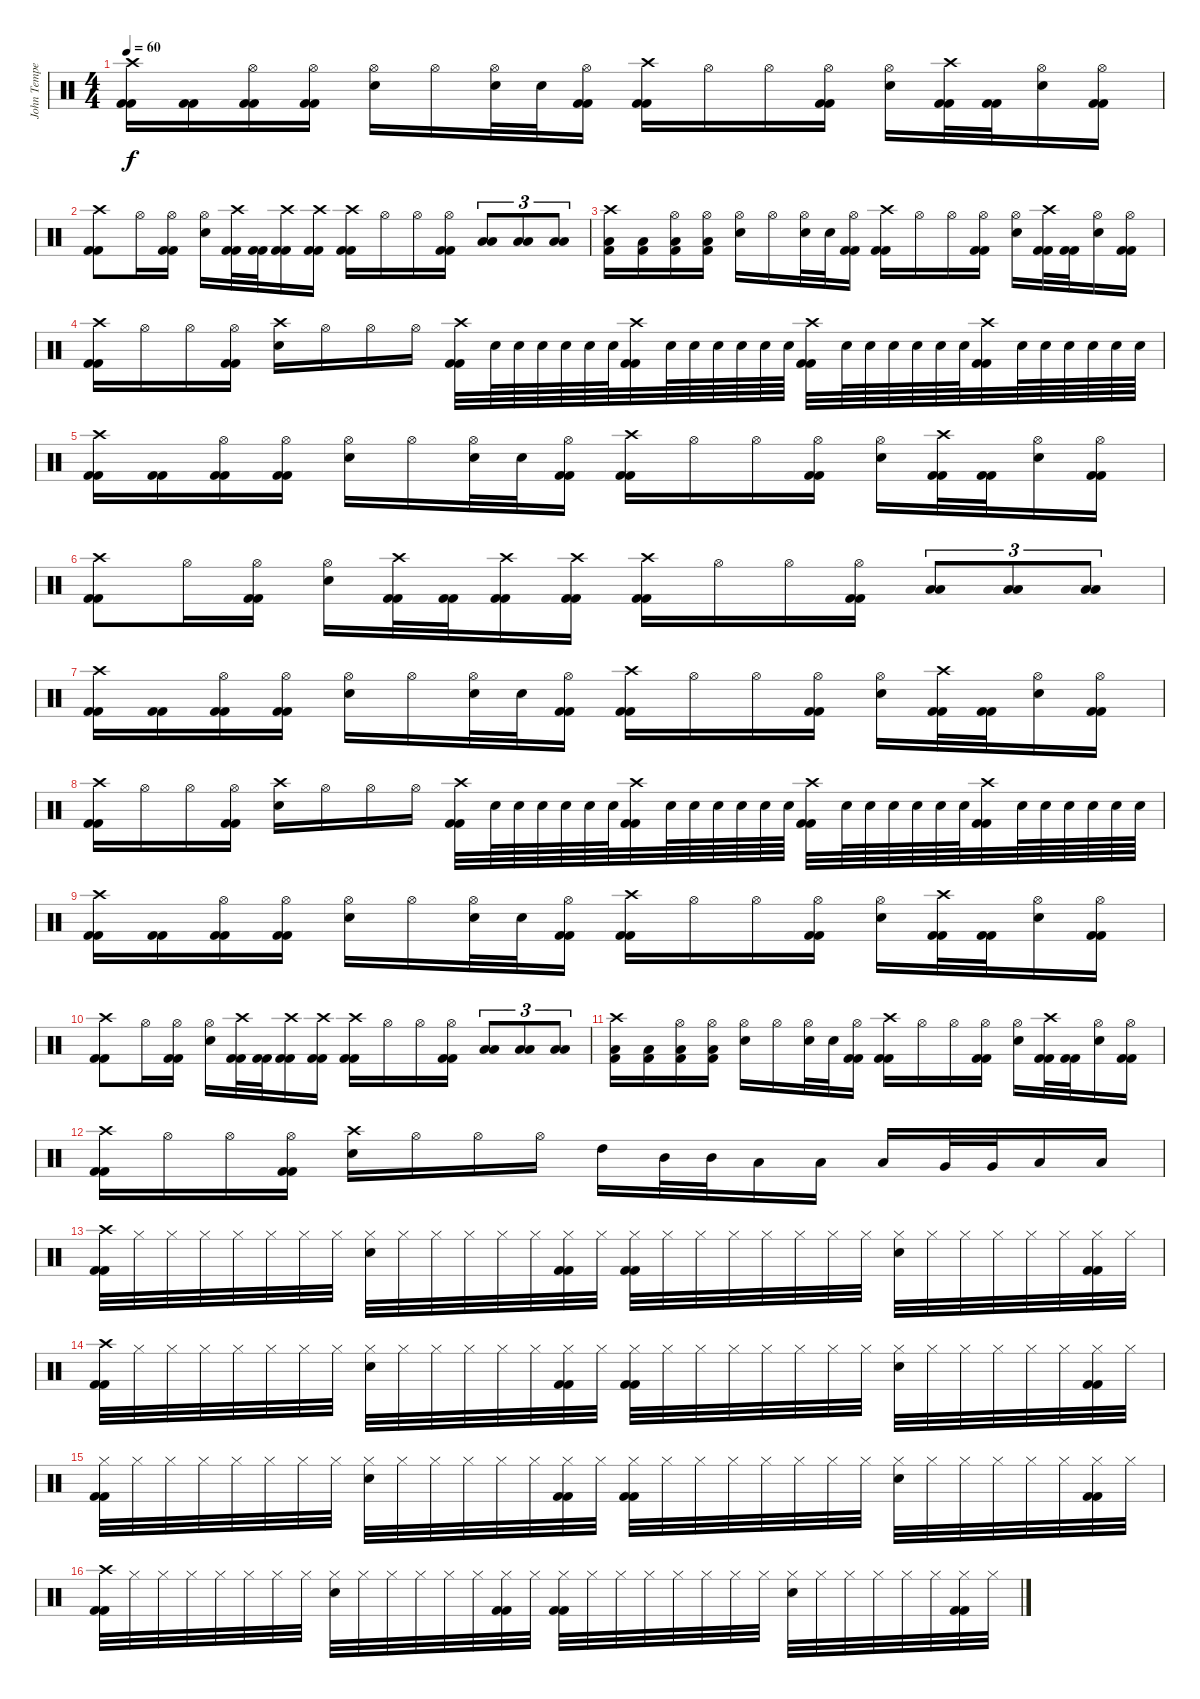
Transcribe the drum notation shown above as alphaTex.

\track ("John Tempesta" "John Tempe") {instrument percussion}
\staff {score}
\articulation defaults
\ts (4 4)
\tempo 60
\clef neutral
\ks c
("Crash high (hit)" "Kick (hit) 2" "Kick (hit) 2").16{dy f} ("Kick (hit) 2" "Kick (hit) 2").16 ("Hi-Hat (open)" "Kick (hit) 2" "Kick (hit) 2").16 ("Hi-Hat (open)" "Kick (hit) 2" "Kick (hit) 2").16 ("Hi-Hat (open)" "Electric Snare (hit)").16 "Hi-Hat (open)".16 ("Hi-Hat (open)" "Electric Snare (hit)").32 "Electric Snare (hit)".32 ("Hi-Hat (open)" "Kick (hit) 2" "Kick (hit) 2").16 ("Crash high (hit)" "Kick (hit) 2" "Kick (hit) 2").16 "Hi-Hat (open)".16 "Hi-Hat (open)".16 ("Hi-Hat (open)" "Kick (hit) 2" "Kick (hit) 2").16 ("Hi-Hat (open)" "Electric Snare (hit)").16 ("Crash high (hit)" "Kick (hit) 2" "Kick (hit) 2").32 ("Kick (hit) 2" "Kick (hit) 2").32 ("Hi-Hat (open)" "Electric Snare (hit)").16 ("Hi-Hat (open)" "Kick (hit) 2" "Kick (hit) 2").16 |
("Crash high (hit)" "Kick (hit) 2" "Kick (hit) 2").8 "Hi-Hat (open)".16 ("Hi-Hat (open)" "Kick (hit) 2" "Kick (hit) 2").16 ("Hi-Hat (open)" "Electric Snare (hit)").16 ("Crash high (hit)" "Kick (hit) 2" "Kick (hit) 2").32 ("Kick (hit) 2" "Kick (hit) 2").32 ("Crash high (hit)" "Kick (hit) 2" "Kick (hit) 2").16 ("Crash high (hit)" "Kick (hit) 2" "Kick (hit) 2").16 ("Crash high (hit)" "Kick (hit) 2" "Kick (hit) 2").16 "Hi-Hat (open)".16 "Hi-Hat (open)".16 ("Hi-Hat (open)" "Kick (hit) 2" "Kick (hit) 2").16 ("Low Floor Tom (hit)" "Low Floor Tom (hit)").8{tu (3 2)} ("Low Floor Tom (hit)" "Low Floor Tom (hit)").8{tu (3 2)} ("Low Floor Tom (hit)" "Low Floor Tom (hit)").8{tu (3 2)} |
("Crash high (hit)" "Low Floor Tom (hit)" "Kick (hit) 2").16 ("Low Floor Tom (hit)" "Kick (hit) 2").16 ("Hi-Hat (open)" "Low Floor Tom (hit)" "Kick (hit) 2").16 ("Hi-Hat (open)" "Low Floor Tom (hit)" "Kick (hit) 2").16 ("Hi-Hat (open)" "Electric Snare (hit)").16 "Hi-Hat (open)".16 ("Hi-Hat (open)" "Electric Snare (hit)").32 "Electric Snare (hit)".32 ("Hi-Hat (open)" "Kick (hit) 2" "Kick (hit) 2").16 ("Crash high (hit)" "Kick (hit) 2" "Kick (hit) 2").16 "Hi-Hat (open)".16 "Hi-Hat (open)".16 ("Hi-Hat (open)" "Kick (hit) 2" "Kick (hit) 2").16 ("Hi-Hat (open)" "Electric Snare (hit)").16 ("Crash high (hit)" "Kick (hit) 2" "Kick (hit) 2").32 ("Kick (hit) 2" "Kick (hit) 2").32 ("Hi-Hat (open)" "Electric Snare (hit)").16 ("Hi-Hat (open)" "Kick (hit) 2" "Kick (hit) 2").16 |
("Crash high (hit)" "Kick (hit) 2" "Kick (hit) 2").16 "Hi-Hat (open)".16 "Hi-Hat (open)".16 ("Hi-Hat (open)" "Kick (hit) 2" "Kick (hit) 2").16 ("Crash high (hit)" "Electric Snare (hit)").16 "Hi-Hat (open)".16 "Hi-Hat (open)".16 "Hi-Hat (open)".16 ("Crash high (hit)" "Kick (hit) 2" "Kick (hit) 2").32 "Electric Snare (hit)".64 "Electric Snare (hit)".64 "Electric Snare (hit)".64 "Electric Snare (hit)".64 "Electric Snare (hit)".64 "Electric Snare (hit)".64 ("Crash high (hit)" "Kick (hit) 2" "Kick (hit) 2").32 "Electric Snare (hit)".64 "Electric Snare (hit)".64 "Electric Snare (hit)".64 "Electric Snare (hit)".64 "Electric Snare (hit)".64 "Electric Snare (hit)".64 ("Crash high (hit)" "Kick (hit) 2" "Kick (hit) 2").32 "Electric Snare (hit)".64 "Electric Snare (hit)".64 "Electric Snare (hit)".64 "Electric Snare (hit)".64 "Electric Snare (hit)".64 "Electric Snare (hit)".64 ("Crash high (hit)" "Kick (hit) 2" "Kick (hit) 2").32 "Electric Snare (hit)".64 "Electric Snare (hit)".64 "Electric Snare (hit)".64 "Electric Snare (hit)".64 "Electric Snare (hit)".64 "Electric Snare (hit)".64 |
("Crash high (hit)" "Kick (hit) 2" "Kick (hit) 2").16 ("Kick (hit) 2" "Kick (hit) 2").16 ("Hi-Hat (open)" "Kick (hit) 2" "Kick (hit) 2").16 ("Hi-Hat (open)" "Kick (hit) 2" "Kick (hit) 2").16 ("Hi-Hat (open)" "Electric Snare (hit)").16 "Hi-Hat (open)".16 ("Hi-Hat (open)" "Electric Snare (hit)").32 "Electric Snare (hit)".32 ("Hi-Hat (open)" "Kick (hit) 2" "Kick (hit) 2").16 ("Crash high (hit)" "Kick (hit) 2" "Kick (hit) 2").16 "Hi-Hat (open)".16 "Hi-Hat (open)".16 ("Hi-Hat (open)" "Kick (hit) 2" "Kick (hit) 2").16 ("Hi-Hat (open)" "Electric Snare (hit)").16 ("Crash high (hit)" "Kick (hit) 2" "Kick (hit) 2").32 ("Kick (hit) 2" "Kick (hit) 2").32 ("Hi-Hat (open)" "Electric Snare (hit)").16 ("Hi-Hat (open)" "Kick (hit) 2" "Kick (hit) 2").16 |
("Crash high (hit)" "Kick (hit) 2" "Kick (hit) 2").8 "Hi-Hat (open)".16 ("Hi-Hat (open)" "Kick (hit) 2" "Kick (hit) 2").16 ("Hi-Hat (open)" "Electric Snare (hit)").16 ("Crash high (hit)" "Kick (hit) 2" "Kick (hit) 2").32 ("Kick (hit) 2" "Kick (hit) 2").32 ("Crash high (hit)" "Kick (hit) 2" "Kick (hit) 2").16 ("Crash high (hit)" "Kick (hit) 2" "Kick (hit) 2").16 ("Crash high (hit)" "Kick (hit) 2" "Kick (hit) 2").16 "Hi-Hat (open)".16 "Hi-Hat (open)".16 ("Hi-Hat (open)" "Kick (hit) 2" "Kick (hit) 2").16 ("Low Floor Tom (hit)" "Low Floor Tom (hit)").8{tu (3 2)} ("Low Floor Tom (hit)" "Low Floor Tom (hit)").8{tu (3 2)} ("Low Floor Tom (hit)" "Low Floor Tom (hit)").8{tu (3 2)} |
("Crash high (hit)" "Kick (hit) 2" "Kick (hit) 2").16 ("Kick (hit) 2" "Kick (hit) 2").16 ("Hi-Hat (open)" "Kick (hit) 2" "Kick (hit) 2").16 ("Hi-Hat (open)" "Kick (hit) 2" "Kick (hit) 2").16 ("Hi-Hat (open)" "Electric Snare (hit)").16 "Hi-Hat (open)".16 ("Hi-Hat (open)" "Electric Snare (hit)").32 "Electric Snare (hit)".32 ("Hi-Hat (open)" "Kick (hit) 2" "Kick (hit) 2").16 ("Crash high (hit)" "Kick (hit) 2" "Kick (hit) 2").16 "Hi-Hat (open)".16 "Hi-Hat (open)".16 ("Hi-Hat (open)" "Kick (hit) 2" "Kick (hit) 2").16 ("Hi-Hat (open)" "Electric Snare (hit)").16 ("Crash high (hit)" "Kick (hit) 2" "Kick (hit) 2").32 ("Kick (hit) 2" "Kick (hit) 2").32 ("Hi-Hat (open)" "Electric Snare (hit)").16 ("Hi-Hat (open)" "Kick (hit) 2" "Kick (hit) 2").16 |
("Crash high (hit)" "Kick (hit) 2" "Kick (hit) 2").16 "Hi-Hat (open)".16 "Hi-Hat (open)".16 ("Hi-Hat (open)" "Kick (hit) 2" "Kick (hit) 2").16 ("Crash high (hit)" "Electric Snare (hit)").16 "Hi-Hat (open)".16 "Hi-Hat (open)".16 "Hi-Hat (open)".16 ("Crash high (hit)" "Kick (hit) 2" "Kick (hit) 2").32 "Electric Snare (hit)".64 "Electric Snare (hit)".64 "Electric Snare (hit)".64 "Electric Snare (hit)".64 "Electric Snare (hit)".64 "Electric Snare (hit)".64 ("Crash high (hit)" "Kick (hit) 2" "Kick (hit) 2").32 "Electric Snare (hit)".64 "Electric Snare (hit)".64 "Electric Snare (hit)".64 "Electric Snare (hit)".64 "Electric Snare (hit)".64 "Electric Snare (hit)".64 ("Crash high (hit)" "Kick (hit) 2" "Kick (hit) 2").32 "Electric Snare (hit)".64 "Electric Snare (hit)".64 "Electric Snare (hit)".64 "Electric Snare (hit)".64 "Electric Snare (hit)".64 "Electric Snare (hit)".64 ("Crash high (hit)" "Kick (hit) 2" "Kick (hit) 2").32 "Electric Snare (hit)".64 "Electric Snare (hit)".64 "Electric Snare (hit)".64 "Electric Snare (hit)".64 "Electric Snare (hit)".64 "Electric Snare (hit)".64 |
("Crash high (hit)" "Kick (hit) 2" "Kick (hit) 2").16 ("Kick (hit) 2" "Kick (hit) 2").16 ("Hi-Hat (open)" "Kick (hit) 2" "Kick (hit) 2").16 ("Hi-Hat (open)" "Kick (hit) 2" "Kick (hit) 2").16 ("Hi-Hat (open)" "Electric Snare (hit)").16 "Hi-Hat (open)".16 ("Hi-Hat (open)" "Electric Snare (hit)").32 "Electric Snare (hit)".32 ("Hi-Hat (open)" "Kick (hit) 2" "Kick (hit) 2").16 ("Crash high (hit)" "Kick (hit) 2" "Kick (hit) 2").16 "Hi-Hat (open)".16 "Hi-Hat (open)".16 ("Hi-Hat (open)" "Kick (hit) 2" "Kick (hit) 2").16 ("Hi-Hat (open)" "Electric Snare (hit)").16 ("Crash high (hit)" "Kick (hit) 2" "Kick (hit) 2").32 ("Kick (hit) 2" "Kick (hit) 2").32 ("Hi-Hat (open)" "Electric Snare (hit)").16 ("Hi-Hat (open)" "Kick (hit) 2" "Kick (hit) 2").16 |
("Crash high (hit)" "Kick (hit) 2" "Kick (hit) 2").8 "Hi-Hat (open)".16 ("Hi-Hat (open)" "Kick (hit) 2" "Kick (hit) 2").16 ("Hi-Hat (open)" "Electric Snare (hit)").16 ("Crash high (hit)" "Kick (hit) 2" "Kick (hit) 2").32 ("Kick (hit) 2" "Kick (hit) 2").32 ("Crash high (hit)" "Kick (hit) 2" "Kick (hit) 2").16 ("Crash high (hit)" "Kick (hit) 2" "Kick (hit) 2").16 ("Crash high (hit)" "Kick (hit) 2" "Kick (hit) 2").16 "Hi-Hat (open)".16 "Hi-Hat (open)".16 ("Hi-Hat (open)" "Kick (hit) 2" "Kick (hit) 2").16 ("Low Floor Tom (hit)" "Low Floor Tom (hit)").8{tu (3 2)} ("Low Floor Tom (hit)" "Low Floor Tom (hit)").8{tu (3 2)} ("Low Floor Tom (hit)" "Low Floor Tom (hit)").8{tu (3 2)} |
("Crash high (hit)" "Low Floor Tom (hit)" "Kick (hit) 2").16 ("Low Floor Tom (hit)" "Kick (hit) 2").16 ("Hi-Hat (open)" "Low Floor Tom (hit)" "Kick (hit) 2").16 ("Hi-Hat (open)" "Low Floor Tom (hit)" "Kick (hit) 2").16 ("Hi-Hat (open)" "Electric Snare (hit)").16 "Hi-Hat (open)".16 ("Hi-Hat (open)" "Electric Snare (hit)").32 "Electric Snare (hit)".32 ("Hi-Hat (open)" "Kick (hit) 2" "Kick (hit) 2").16 ("Crash high (hit)" "Kick (hit) 2" "Kick (hit) 2").16 "Hi-Hat (open)".16 "Hi-Hat (open)".16 ("Hi-Hat (open)" "Kick (hit) 2" "Kick (hit) 2").16 ("Hi-Hat (open)" "Electric Snare (hit)").16 ("Crash high (hit)" "Kick (hit) 2" "Kick (hit) 2").32 ("Kick (hit) 2" "Kick (hit) 2").32 ("Hi-Hat (open)" "Electric Snare (hit)").16 ("Hi-Hat (open)" "Kick (hit) 2" "Kick (hit) 2").16 |
("Crash high (hit)" "Kick (hit) 2" "Kick (hit) 2").16 "Hi-Hat (open)".16 "Hi-Hat (open)".16 ("Hi-Hat (open)" "Kick (hit) 2" "Kick (hit) 2").16 ("Crash high (hit)" "Electric Snare (hit)").16 "Hi-Hat (open)".16 "Hi-Hat (open)".16 "Hi-Hat (open)".16 "High Tom (hit)".16 "Mid Tom (hit)".32 "Mid Tom (hit)".32 "Low Tom (hit)".16 "Low Tom (hit)".16 "Low Tom (hit)".16 "Very Low Tom (hit)".32 "Very Low Tom (hit)".32 "Low Floor Tom (hit)".16 "Low Floor Tom (hit)".16 |
("Crash high (hit)" "Kick (hit) 2" "Kick (hit) 2").32 "Hi-Hat (closed)".32 "Hi-Hat (closed)".32 "Hi-Hat (closed)".32 "Hi-Hat (closed)".32 "Hi-Hat (closed)".32 "Hi-Hat (closed)".32 "Hi-Hat (closed)".32 ("Hi-Hat (closed)" "Electric Snare (hit)").32 "Hi-Hat (closed)".32 "Hi-Hat (closed)".32 "Hi-Hat (closed)".32 "Hi-Hat (closed)".32 "Hi-Hat (closed)".32 ("Hi-Hat (closed)" "Kick (hit) 2" "Kick (hit) 2").32 "Hi-Hat (closed)".32 ("Hi-Hat (closed)" "Kick (hit) 2" "Kick (hit) 2").32 "Hi-Hat (closed)".32 "Hi-Hat (closed)".32 "Hi-Hat (closed)".32 "Hi-Hat (closed)".32 "Hi-Hat (closed)".32 "Hi-Hat (closed)".32 "Hi-Hat (closed)".32 ("Hi-Hat (closed)" "Electric Snare (hit)").32 "Hi-Hat (closed)".32 "Hi-Hat (closed)".32 "Hi-Hat (closed)".32 "Hi-Hat (closed)".32 "Hi-Hat (closed)".32 ("Hi-Hat (closed)" "Kick (hit) 2" "Kick (hit) 2").32 "Hi-Hat (closed)".32 |
("Crash high (hit)" "Kick (hit) 2" "Kick (hit) 2").32 "Hi-Hat (closed)".32 "Hi-Hat (closed)".32 "Hi-Hat (closed)".32 "Hi-Hat (closed)".32 "Hi-Hat (closed)".32 "Hi-Hat (closed)".32 "Hi-Hat (closed)".32 ("Hi-Hat (closed)" "Electric Snare (hit)").32 "Hi-Hat (closed)".32 "Hi-Hat (closed)".32 "Hi-Hat (closed)".32 "Hi-Hat (closed)".32 "Hi-Hat (closed)".32 ("Hi-Hat (closed)" "Kick (hit) 2" "Kick (hit) 2").32 "Hi-Hat (closed)".32 ("Hi-Hat (closed)" "Kick (hit) 2" "Kick (hit) 2").32 "Hi-Hat (closed)".32 "Hi-Hat (closed)".32 "Hi-Hat (closed)".32 "Hi-Hat (closed)".32 "Hi-Hat (closed)".32 "Hi-Hat (closed)".32 "Hi-Hat (closed)".32 ("Hi-Hat (closed)" "Electric Snare (hit)").32 "Hi-Hat (closed)".32 "Hi-Hat (closed)".32 "Hi-Hat (closed)".32 "Hi-Hat (closed)".32 "Hi-Hat (closed)".32 ("Hi-Hat (closed)" "Kick (hit) 2" "Kick (hit) 2").32 "Hi-Hat (closed)".32 |
("Hi-Hat (closed)" "Kick (hit) 2" "Kick (hit) 2").32 "Hi-Hat (closed)".32 "Hi-Hat (closed)".32 "Hi-Hat (closed)".32 "Hi-Hat (closed)".32 "Hi-Hat (closed)".32 "Hi-Hat (closed)".32 "Hi-Hat (closed)".32 ("Hi-Hat (closed)" "Electric Snare (hit)").32 "Hi-Hat (closed)".32 "Hi-Hat (closed)".32 "Hi-Hat (closed)".32 "Hi-Hat (closed)".32 "Hi-Hat (closed)".32 ("Hi-Hat (closed)" "Kick (hit) 2" "Kick (hit) 2").32 "Hi-Hat (closed)".32 ("Hi-Hat (closed)" "Kick (hit) 2" "Kick (hit) 2").32 "Hi-Hat (closed)".32 "Hi-Hat (closed)".32 "Hi-Hat (closed)".32 "Hi-Hat (closed)".32 "Hi-Hat (closed)".32 "Hi-Hat (closed)".32 "Hi-Hat (closed)".32 ("Hi-Hat (closed)" "Electric Snare (hit)").32 "Hi-Hat (closed)".32 "Hi-Hat (closed)".32 "Hi-Hat (closed)".32 "Hi-Hat (closed)".32 "Hi-Hat (closed)".32 ("Hi-Hat (closed)" "Kick (hit) 2" "Kick (hit) 2").32 "Hi-Hat (closed)".32 |
("Crash high (hit)" "Kick (hit) 2" "Kick (hit) 2").32 "Hi-Hat (closed)".32 "Hi-Hat (closed)".32 "Hi-Hat (closed)".32 "Hi-Hat (closed)".32 "Hi-Hat (closed)".32 "Hi-Hat (closed)".32 "Hi-Hat (closed)".32 ("Hi-Hat (closed)" "Electric Snare (hit)").32 "Hi-Hat (closed)".32 "Hi-Hat (closed)".32 "Hi-Hat (closed)".32 "Hi-Hat (closed)".32 "Hi-Hat (closed)".32 ("Hi-Hat (closed)" "Kick (hit) 2" "Kick (hit) 2").32 "Hi-Hat (closed)".32 ("Hi-Hat (closed)" "Kick (hit) 2" "Kick (hit) 2").32 "Hi-Hat (closed)".32 "Hi-Hat (closed)".32 "Hi-Hat (closed)".32 "Hi-Hat (closed)".32 "Hi-Hat (closed)".32 "Hi-Hat (closed)".32 "Hi-Hat (closed)".32 ("Hi-Hat (closed)" "Electric Snare (hit)").32 "Hi-Hat (closed)".32 "Hi-Hat (closed)".32 "Hi-Hat (closed)".32 "Hi-Hat (closed)".32 "Hi-Hat (closed)".32 ("Hi-Hat (closed)" "Kick (hit) 2" "Kick (hit) 2").32 "Hi-Hat (closed)".32
